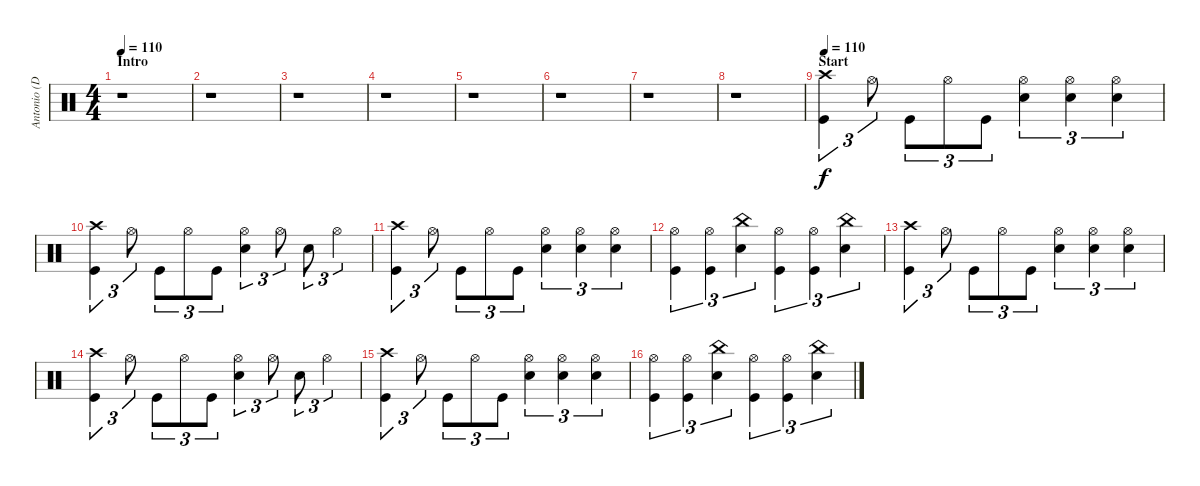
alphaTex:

\track ("Antonio (Drums)" "Antonio (D") {instrument percussion}
\staff {score}
\articulation defaults
\ts (4 4)
\section ("" "Intro")
\tempo 110
\tempo 102
\tempo 110
\clef neutral
\ks c
r.1{dy f} |
r.1 |
r.1 |
r.1 |
r.1 |
r.1 |
r.1 |
r.1 |
\section ("" "Start")
\tempo 110
("Crash high (hit)" "Kick (hit)").4{tu (3 2)} "Hi-Hat (open)".8{tu (3 2)} "Kick (hit)".8{tu (3 2)} "Hi-Hat (open)".8{tu (3 2)} "Kick (hit)".8{tu (3 2)} ("Hi-Hat (open)" "Electric Snare (hit)").4{tu (3 2)} ("Hi-Hat (open)" "Electric Snare (hit)").4{tu (3 2)} ("Hi-Hat (open)" "Electric Snare (hit)").4{tu (3 2)} |
("Crash high (hit)" "Kick (hit)").4{tu (3 2)} "Hi-Hat (open)".8{tu (3 2)} "Kick (hit)".8{tu (3 2)} "Hi-Hat (open)".8{tu (3 2)} "Kick (hit)".8{tu (3 2)} ("Hi-Hat (open)" "Electric Snare (hit)").4{tu (3 2)} "Hi-Hat (open)".8{tu (3 2)} "Electric Snare (hit)".8{tu (3 2)} "Hi-Hat (open)".4{tu (3 2)} |
("Crash high (hit)" "Kick (hit)").4{tu (3 2)} "Hi-Hat (open)".8{tu (3 2)} "Kick (hit)".8{tu (3 2)} "Hi-Hat (open)".8{tu (3 2)} "Kick (hit)".8{tu (3 2)} ("Hi-Hat (open)" "Electric Snare (hit)").4{tu (3 2)} ("Hi-Hat (open)" "Electric Snare (hit)").4{tu (3 2)} ("Hi-Hat (open)" "Electric Snare (hit)").4{tu (3 2)} |
("Hi-Hat (open)" "Kick (hit)").4{tu (3 2)} ("Hi-Hat (open)" "Kick (hit)").4{tu (3 2)} ("China (hit)" "Electric Snare (hit)").4{tu (3 2)} ("Hi-Hat (open)" "Kick (hit)").4{tu (3 2)} ("Hi-Hat (open)" "Kick (hit)").4{tu (3 2)} ("China (hit)" "Electric Snare (hit)").4{tu (3 2)} |
("Crash high (hit)" "Kick (hit)").4{tu (3 2)} "Hi-Hat (open)".8{tu (3 2)} "Kick (hit)".8{tu (3 2)} "Hi-Hat (open)".8{tu (3 2)} "Kick (hit)".8{tu (3 2)} ("Hi-Hat (open)" "Electric Snare (hit)").4{tu (3 2)} ("Hi-Hat (open)" "Electric Snare (hit)").4{tu (3 2)} ("Hi-Hat (open)" "Electric Snare (hit)").4{tu (3 2)} |
("Crash high (hit)" "Kick (hit)").4{tu (3 2)} "Hi-Hat (open)".8{tu (3 2)} "Kick (hit)".8{tu (3 2)} "Hi-Hat (open)".8{tu (3 2)} "Kick (hit)".8{tu (3 2)} ("Hi-Hat (open)" "Electric Snare (hit)").4{tu (3 2)} "Hi-Hat (open)".8{tu (3 2)} "Electric Snare (hit)".8{tu (3 2)} "Hi-Hat (open)".4{tu (3 2)} |
("Crash high (hit)" "Kick (hit)").4{tu (3 2)} "Hi-Hat (open)".8{tu (3 2)} "Kick (hit)".8{tu (3 2)} "Hi-Hat (open)".8{tu (3 2)} "Kick (hit)".8{tu (3 2)} ("Hi-Hat (open)" "Electric Snare (hit)").4{tu (3 2)} ("Hi-Hat (open)" "Electric Snare (hit)").4{tu (3 2)} ("Hi-Hat (open)" "Electric Snare (hit)").4{tu (3 2)} |
("Hi-Hat (open)" "Kick (hit)").4{tu (3 2)} ("Hi-Hat (open)" "Kick (hit)").4{tu (3 2)} ("China (hit)" "Electric Snare (hit)").4{tu (3 2)} ("Hi-Hat (open)" "Kick (hit)").4{tu (3 2)} ("Hi-Hat (open)" "Kick (hit)").4{tu (3 2)} ("China (hit)" "Electric Snare (hit)").4{tu (3 2)}
